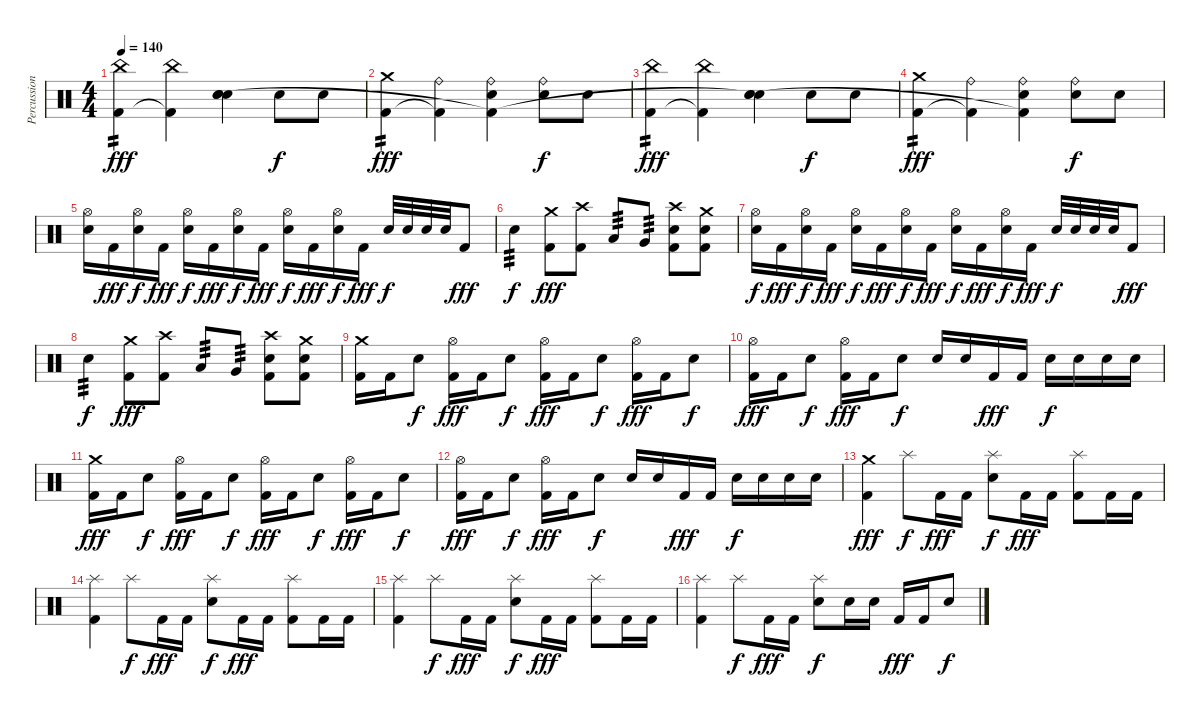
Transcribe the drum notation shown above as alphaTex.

\track ("Percussion" "Percussion") {instrument percussion}
\staff {score}
\articulation defaults
\ts (4 4)
\tempo 140
\clef neutral
\ks c
("China (hit)" "Kick (hit) 2").4{tp 2 dy fff} ("China (hit)" "Kick (hit) 2"{t}).4 ("Electric Snare (hit)" "Electric Snare (hit)" "Snare (hit)"{t}).4{bd 240} "Electric Snare (hit)".8{dy f} "Electric Snare (hit)".8 |
("Crash medium (hit)" "Kick (hit) 2").4{tp 2 dy fff} ("Ride (bell)" "Kick (hit) 2"{t}).4 ("Ride (bell)" "Electric Snare (hit)" "Kick (hit) 2"{t}).4 ("Ride (bell)" "Electric Snare (hit)").8{dy f} "Electric Snare (hit)".8 |
("China (hit)" "Kick (hit) 2").4{tp 2 dy fff} ("China (hit)" "Kick (hit) 2"{t}).4 ("Electric Snare (hit)" "Electric Snare (hit)" "Snare (hit)"{t}).4{bd 240} "Electric Snare (hit)".8{dy f} "Electric Snare (hit)".8 |
("Crash medium (hit)" "Kick (hit) 2").4{tp 2 dy fff} ("Ride (bell)" "Kick (hit) 2"{t}).4 ("Ride (bell)" "Electric Snare (hit)" "Kick (hit) 2"{t}).4 ("Ride (bell)" "Electric Snare (hit)").8{dy f} "Electric Snare (hit)".8 |
("Hi-Hat (open)" "Electric Snare (hit)").16 "Kick (hit) 2".16{dy fff} ("Hi-Hat (open)" "Electric Snare (hit)").16{dy f} "Kick (hit) 2".16{dy fff} ("Hi-Hat (open)" "Electric Snare (hit)").16{dy f} "Kick (hit) 2".16{dy fff} ("Hi-Hat (open)" "Electric Snare (hit)").16{dy f} "Kick (hit) 2".16{dy fff} ("Hi-Hat (open)" "Electric Snare (hit)").16{dy f} "Kick (hit) 2".16{dy fff} ("Hi-Hat (open)" "Electric Snare (hit)").16{dy f} "Kick (hit) 2".16{dy fff} "Electric Snare (hit)".32{dy f} "Electric Snare (hit)".32 "Electric Snare (hit)".32 "Electric Snare (hit)".32 "Kick (hit) 2".8{dy fff} |
"Electric Snare (hit)".4{tp 3 dy f} ("Crash medium (hit)" "Kick (hit) 2").8{dy fff} ("Crash high (hit)" "Kick (hit) 2").8 "Low Tom (hit)".8{tp 3} "Very Low Tom (hit)".8{tp 3} ("Crash high (hit)" "Electric Snare (hit)" "Kick (hit) 2").8 ("Crash medium (hit)" "Electric Snare (hit)" "Kick (hit) 2").8 |
("Hi-Hat (open)" "Electric Snare (hit)").16{dy f} "Kick (hit) 2".16{dy fff} ("Hi-Hat (open)" "Electric Snare (hit)").16{dy f} "Kick (hit) 2".16{dy fff} ("Hi-Hat (open)" "Electric Snare (hit)").16{dy f} "Kick (hit) 2".16{dy fff} ("Hi-Hat (open)" "Electric Snare (hit)").16{dy f} "Kick (hit) 2".16{dy fff} ("Hi-Hat (open)" "Electric Snare (hit)").16{dy f} "Kick (hit) 2".16{dy fff} ("Hi-Hat (open)" "Electric Snare (hit)").16{dy f} "Kick (hit) 2".16{dy fff} "Electric Snare (hit)".32{dy f} "Electric Snare (hit)".32 "Electric Snare (hit)".32 "Electric Snare (hit)".32 "Kick (hit) 2".8{dy fff} |
"Electric Snare (hit)".4{tp 3 dy f} ("Crash medium (hit)" "Kick (hit) 2").8{dy fff} ("Crash high (hit)" "Kick (hit) 2").8 "Low Tom (hit)".8{tp 3} "Very Low Tom (hit)".8{tp 3} ("Crash high (hit)" "Electric Snare (hit)" "Kick (hit) 2").8 ("Crash medium (hit)" "Electric Snare (hit)" "Kick (hit) 2").8 |
("Crash medium (hit)" "Kick (hit) 2").16 "Kick (hit) 2".16 "Electric Snare (hit)".8{dy f} ("Hi-Hat (open)" "Kick (hit) 2").16{dy fff} "Kick (hit) 2".16 "Electric Snare (hit)".8{dy f} ("Hi-Hat (open)" "Kick (hit) 2").16{dy fff} "Kick (hit) 2".16 "Electric Snare (hit)".8{dy f} ("Hi-Hat (open)" "Kick (hit) 2").16{dy fff} "Kick (hit) 2".16 "Electric Snare (hit)".8{dy f} |
("Hi-Hat (open)" "Kick (hit) 2").16{dy fff} "Kick (hit) 2".16 "Electric Snare (hit)".8{dy f} ("Hi-Hat (open)" "Kick (hit) 2").16{dy fff} "Kick (hit) 2".16 "Electric Snare (hit)".8{dy f} "Electric Snare (hit)".16 "Electric Snare (hit)".16 "Kick (hit) 2".16{dy fff} "Kick (hit) 2".16 "Electric Snare (hit)".16{dy f} "Electric Snare (hit)".16 "Electric Snare (hit)".16 "Electric Snare (hit)".16 |
("Crash medium (hit)" "Kick (hit) 2").16{dy fff} "Kick (hit) 2".16 "Electric Snare (hit)".8{dy f} ("Hi-Hat (open)" "Kick (hit) 2").16{dy fff} "Kick (hit) 2".16 "Electric Snare (hit)".8{dy f} ("Hi-Hat (open)" "Kick (hit) 2").16{dy fff} "Kick (hit) 2".16 "Electric Snare (hit)".8{dy f} ("Hi-Hat (open)" "Kick (hit) 2").16{dy fff} "Kick (hit) 2".16 "Electric Snare (hit)".8{dy f} |
("Hi-Hat (open)" "Kick (hit) 2").16{dy fff} "Kick (hit) 2".16 "Electric Snare (hit)".8{dy f} ("Hi-Hat (open)" "Kick (hit) 2").16{dy fff} "Kick (hit) 2".16 "Electric Snare (hit)".8{dy f} "Electric Snare (hit)".16 "Electric Snare (hit)".16 "Kick (hit) 2".16{dy fff} "Kick (hit) 2".16 "Electric Snare (hit)".16{dy f} "Electric Snare (hit)".16 "Electric Snare (hit)".16 "Electric Snare (hit)".16 |
("Crash medium (hit)" "Kick (hit) 2").4{dy fff} "Splash (hit)".8{dy f} "Kick (hit) 2".16{dy fff} "Kick (hit) 2".16 ("Splash (hit)" "Electric Snare (hit)").8{dy f} "Kick (hit) 2".16{dy fff} "Kick (hit) 2".16 ("Splash (hit)" "Kick (hit) 2").8 "Kick (hit) 2".16 "Kick (hit) 2".16 |
("Splash (hit)" "Kick (hit) 2").4 "Splash (hit)".8{dy f} "Kick (hit) 2".16{dy fff} "Kick (hit) 2".16 ("Splash (hit)" "Electric Snare (hit)").8{dy f} "Kick (hit) 2".16{dy fff} "Kick (hit) 2".16 ("Splash (hit)" "Kick (hit) 2").8 "Kick (hit) 2".16 "Kick (hit) 2".16 |
("Splash (hit)" "Kick (hit) 2").4 "Splash (hit)".8{dy f} "Kick (hit) 2".16{dy fff} "Kick (hit) 2".16 ("Splash (hit)" "Electric Snare (hit)").8{dy f} "Kick (hit) 2".16{dy fff} "Kick (hit) 2".16 ("Splash (hit)" "Kick (hit) 2").8 "Kick (hit) 2".16 "Kick (hit) 2".16 |
("Splash (hit)" "Kick (hit) 2").4 "Splash (hit)".8{dy f} "Kick (hit) 2".16{dy fff} "Kick (hit) 2".16 ("Splash (hit)" "Electric Snare (hit)").8{dy f} "Electric Snare (hit)".16 "Electric Snare (hit)".16 "Kick (hit) 2".16{dy fff} "Kick (hit) 2".16 "Electric Snare (hit)".8{dy f}
